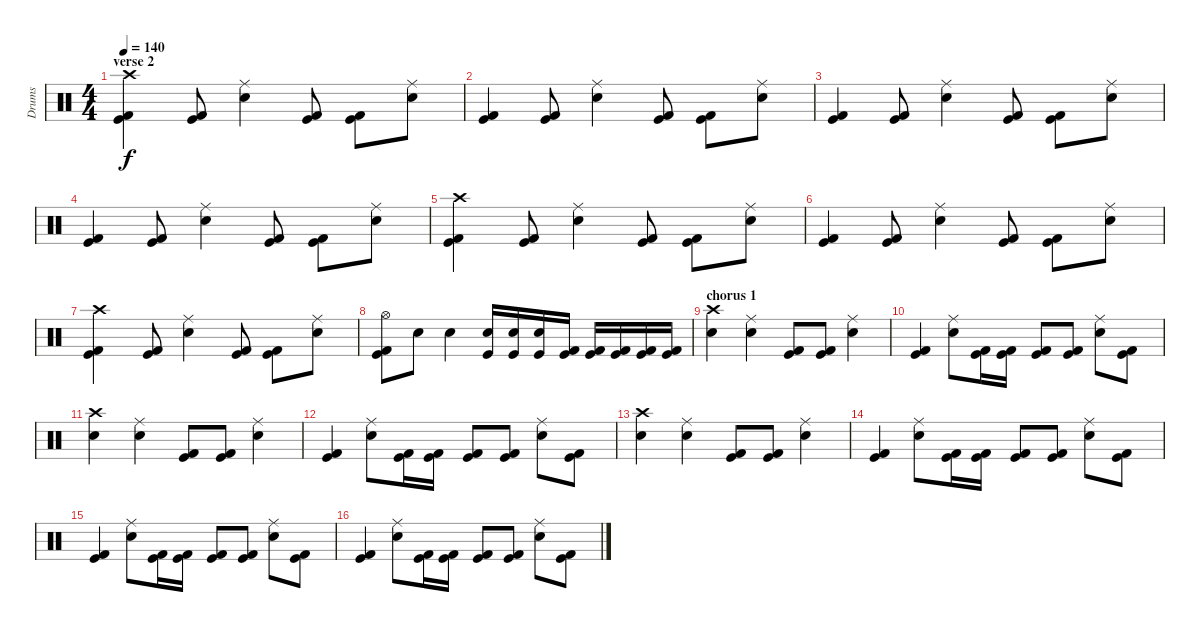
\track ("Drums" "Drums") {instrument percussion}
\staff {score}
\articulation defaults
\ts (4 4)
\section ("" "verse 2")
\tempo 140
\clef neutral
\ks c
("Crash high (hit)" "Kick (hit)" "Kick (hit) 2").4{dy f} ("Kick (hit)" "Kick (hit) 2").8 ("Ride (middle)" "Electric Snare (hit)").4 ("Kick (hit)" "Kick (hit) 2").8 ("Kick (hit)" "Kick (hit) 2").8 ("Ride (middle)" "Electric Snare (hit)").8 |
("Kick (hit)" "Kick (hit) 2").4 ("Kick (hit)" "Kick (hit) 2").8 ("Ride (middle)" "Electric Snare (hit)").4 ("Kick (hit)" "Kick (hit) 2").8 ("Kick (hit)" "Kick (hit) 2").8 ("Ride (middle)" "Electric Snare (hit)").8 |
("Kick (hit)" "Kick (hit) 2").4 ("Kick (hit)" "Kick (hit) 2").8 ("Ride (middle)" "Electric Snare (hit)").4 ("Kick (hit)" "Kick (hit) 2").8 ("Kick (hit)" "Kick (hit) 2").8 ("Ride (middle)" "Electric Snare (hit)").8 |
("Kick (hit)" "Kick (hit) 2").4 ("Kick (hit)" "Kick (hit) 2").8 ("Ride (middle)" "Electric Snare (hit)").4 ("Kick (hit)" "Kick (hit) 2").8 ("Kick (hit)" "Kick (hit) 2").8 ("Ride (middle)" "Electric Snare (hit)").8 |
("Crash high (hit)" "Kick (hit)" "Kick (hit) 2").4 ("Kick (hit)" "Kick (hit) 2").8 ("Ride (middle)" "Electric Snare (hit)").4 ("Kick (hit)" "Kick (hit) 2").8 ("Kick (hit)" "Kick (hit) 2").8 ("Ride (middle)" "Electric Snare (hit)").8 |
("Kick (hit)" "Kick (hit) 2").4 ("Kick (hit)" "Kick (hit) 2").8 ("Ride (middle)" "Electric Snare (hit)").4 ("Kick (hit)" "Kick (hit) 2").8 ("Kick (hit)" "Kick (hit) 2").8 ("Ride (middle)" "Electric Snare (hit)").8 |
("Crash high (hit)" "Kick (hit)" "Kick (hit) 2").4 ("Kick (hit)" "Kick (hit) 2").8 ("Ride (middle)" "Electric Snare (hit)").4 ("Kick (hit)" "Kick (hit) 2").8 ("Kick (hit)" "Kick (hit) 2").8 ("Ride (middle)" "Electric Snare (hit)").8 |
("Hi-Hat (open)" "Kick (hit)" "Kick (hit) 2").8 "Electric Snare (hit)".8 "Electric Snare (hit)".4 ("Kick (hit)" "Snare (hit) 2").16 ("Kick (hit)" "Snare (hit) 2").16 ("Kick (hit)" "Snare (hit) 2").16 ("Kick (hit)" "Kick (hit) 2").16 ("Kick (hit)" "Kick (hit) 2").16 ("Kick (hit)" "Kick (hit) 2").16 ("Kick (hit)" "Kick (hit) 2").16 ("Kick (hit)" "Kick (hit) 2").16 |
\section ("" "chorus 1")
("Crash high (hit)" "Electric Snare (hit)").4 ("Ride (middle)" "Electric Snare (hit)").4 ("Kick (hit)" "Kick (hit) 2").8 ("Kick (hit)" "Kick (hit) 2").8 ("Ride (middle)" "Electric Snare (hit)").4 |
("Kick (hit)" "Kick (hit) 2").4 ("Ride (middle)" "Electric Snare (hit)").8 ("Kick (hit)" "Kick (hit) 2").16 ("Kick (hit)" "Kick (hit) 2").16 ("Kick (hit)" "Kick (hit) 2").8 ("Kick (hit)" "Kick (hit) 2").8 ("Ride (middle)" "Electric Snare (hit)").8 ("Kick (hit)" "Kick (hit) 2").8 |
("Crash high (hit)" "Electric Snare (hit)").4 ("Ride (middle)" "Electric Snare (hit)").4 ("Kick (hit)" "Kick (hit) 2").8 ("Kick (hit)" "Kick (hit) 2").8 ("Ride (middle)" "Electric Snare (hit)").4 |
("Kick (hit)" "Kick (hit) 2").4 ("Ride (middle)" "Electric Snare (hit)").8 ("Kick (hit)" "Kick (hit) 2").16 ("Kick (hit)" "Kick (hit) 2").16 ("Kick (hit)" "Kick (hit) 2").8 ("Kick (hit)" "Kick (hit) 2").8 ("Ride (middle)" "Electric Snare (hit)").8 ("Kick (hit)" "Kick (hit) 2").8 |
("Crash high (hit)" "Electric Snare (hit)").4 ("Ride (middle)" "Electric Snare (hit)").4 ("Kick (hit)" "Kick (hit) 2").8 ("Kick (hit)" "Kick (hit) 2").8 ("Ride (middle)" "Electric Snare (hit)").4 |
("Kick (hit)" "Kick (hit) 2").4 ("Ride (middle)" "Electric Snare (hit)").8 ("Kick (hit)" "Kick (hit) 2").16 ("Kick (hit)" "Kick (hit) 2").16 ("Kick (hit)" "Kick (hit) 2").8 ("Kick (hit)" "Kick (hit) 2").8 ("Ride (middle)" "Electric Snare (hit)").8 ("Kick (hit)" "Kick (hit) 2").8 |
("Kick (hit)" "Kick (hit) 2").4 ("Ride (middle)" "Electric Snare (hit)").8 ("Kick (hit)" "Kick (hit) 2").16 ("Kick (hit)" "Kick (hit) 2").16 ("Kick (hit)" "Kick (hit) 2").8 ("Kick (hit)" "Kick (hit) 2").8 ("Ride (middle)" "Electric Snare (hit)").8 ("Kick (hit)" "Kick (hit) 2").8 |
("Kick (hit)" "Kick (hit) 2").4 ("Ride (middle)" "Electric Snare (hit)").8 ("Kick (hit)" "Kick (hit) 2").16 ("Kick (hit)" "Kick (hit) 2").16 ("Kick (hit)" "Kick (hit) 2").8 ("Kick (hit)" "Kick (hit) 2").8 ("Ride (middle)" "Electric Snare (hit)").8 ("Kick (hit)" "Kick (hit) 2").8
